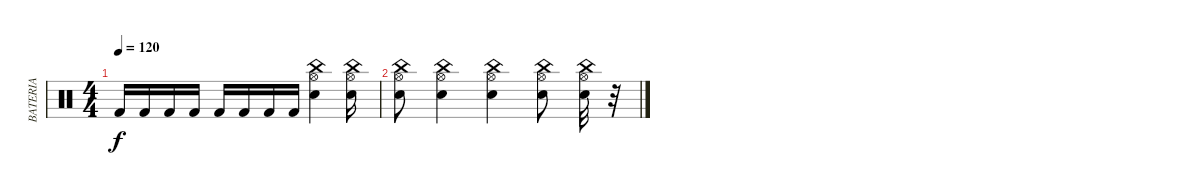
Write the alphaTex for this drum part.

\track ("BATERIA" "BATERIA") {instrument percussion}
\staff {score}
\articulation defaults
\ts (4 4)
\tempo 120
\clef neutral
\ks c "Kick (hit) 2".16{dy f} "Kick (hit) 2".16 "Kick (hit) 2".16 "Kick (hit) 2".16 "Kick (hit) 2".16 "Kick (hit) 2".16 "Kick (hit) 2".16 "Kick (hit) 2".16
("Snare (hit) 2" "Hi-Hat (open)" "China (hit)").4 ("Snare (hit) 2" "China (hit)" "Hi-Hat (open)").16 |
("Snare (hit) 2" "Hi-Hat (open)" "China (hit)").8 ("Snare (hit) 2" "China (hit)" "Hi-Hat (open)").4 ("Snare (hit) 2" "Hi-Hat (open)" "China (hit)").4 ("Snare (hit) 2" "Hi-Hat (open)" "China (hit)").8 ("Snare (hit) 2" "China (hit)" "Hi-Hat (open)").32 r.32
